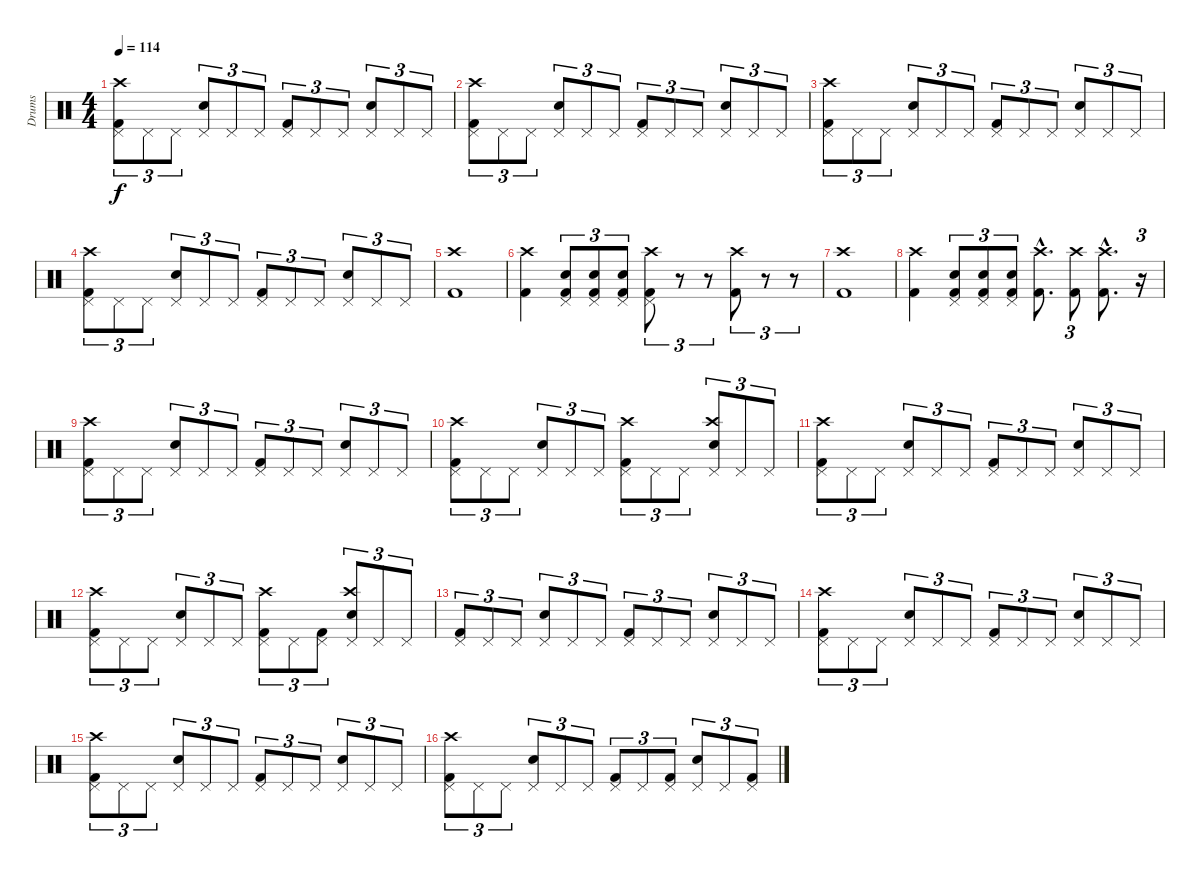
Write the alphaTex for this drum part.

\track ("Drums" "Drums") {instrument percussion}
\staff {score}
\articulation defaults
\ts (4 4)
\tempo 114
\clef neutral
\ks c
("Pedal Hi-Hat (hit)" "Kick (hit) 2" "Crash high (hit)").8{tu (3 2) dy f} "Pedal Hi-Hat (hit)".8{tu (3 2)} "Pedal Hi-Hat (hit)".8{tu (3 2)} ("Pedal Hi-Hat (hit)" "Electric Snare (hit)").8{tu (3 2)} "Pedal Hi-Hat (hit)".8{tu (3 2)} "Pedal Hi-Hat (hit)".8{tu (3 2)} ("Pedal Hi-Hat (hit)" "Kick (hit) 2").8{tu (3 2)} "Pedal Hi-Hat (hit)".8{tu (3 2)} "Pedal Hi-Hat (hit)".8{tu (3 2)} ("Pedal Hi-Hat (hit)" "Electric Snare (hit)").8{tu (3 2)} "Pedal Hi-Hat (hit)".8{tu (3 2)} "Pedal Hi-Hat (hit)".8{tu (3 2)} |
("Pedal Hi-Hat (hit)" "Kick (hit) 2" "Crash high (hit)").8{tu (3 2)} "Pedal Hi-Hat (hit)".8{tu (3 2)} "Pedal Hi-Hat (hit)".8{tu (3 2)} ("Pedal Hi-Hat (hit)" "Electric Snare (hit)").8{tu (3 2)} "Pedal Hi-Hat (hit)".8{tu (3 2)} "Pedal Hi-Hat (hit)".8{tu (3 2)} ("Pedal Hi-Hat (hit)" "Kick (hit) 2").8{tu (3 2)} "Pedal Hi-Hat (hit)".8{tu (3 2)} "Pedal Hi-Hat (hit)".8{tu (3 2)} ("Pedal Hi-Hat (hit)" "Electric Snare (hit)").8{tu (3 2)} "Pedal Hi-Hat (hit)".8{tu (3 2)} "Pedal Hi-Hat (hit)".8{tu (3 2)} |
("Pedal Hi-Hat (hit)" "Kick (hit) 2" "Crash high (hit)").8{tu (3 2)} "Pedal Hi-Hat (hit)".8{tu (3 2)} "Pedal Hi-Hat (hit)".8{tu (3 2)} ("Pedal Hi-Hat (hit)" "Electric Snare (hit)").8{tu (3 2)} "Pedal Hi-Hat (hit)".8{tu (3 2)} "Pedal Hi-Hat (hit)".8{tu (3 2)} ("Pedal Hi-Hat (hit)" "Kick (hit) 2").8{tu (3 2)} "Pedal Hi-Hat (hit)".8{tu (3 2)} "Pedal Hi-Hat (hit)".8{tu (3 2)} ("Pedal Hi-Hat (hit)" "Electric Snare (hit)").8{tu (3 2)} "Pedal Hi-Hat (hit)".8{tu (3 2)} "Pedal Hi-Hat (hit)".8{tu (3 2)} |
("Pedal Hi-Hat (hit)" "Kick (hit) 2" "Crash high (hit)").8{tu (3 2)} "Pedal Hi-Hat (hit)".8{tu (3 2)} "Pedal Hi-Hat (hit)".8{tu (3 2)} ("Pedal Hi-Hat (hit)" "Electric Snare (hit)").8{tu (3 2)} "Pedal Hi-Hat (hit)".8{tu (3 2)} "Pedal Hi-Hat (hit)".8{tu (3 2)} ("Pedal Hi-Hat (hit)" "Kick (hit) 2").8{tu (3 2)} "Pedal Hi-Hat (hit)".8{tu (3 2)} "Pedal Hi-Hat (hit)".8{tu (3 2)} ("Pedal Hi-Hat (hit)" "Electric Snare (hit)").8{tu (3 2)} "Pedal Hi-Hat (hit)".8{tu (3 2)} "Pedal Hi-Hat (hit)".8{tu (3 2)} |
("Crash high (hit)" "Kick (hit) 2").1 |
("Kick (hit) 2" "Crash high (hit)").4 ("Pedal Hi-Hat (hit)" "Electric Snare (hit)" "Kick (hit) 2").8{tu (3 2)} ("Pedal Hi-Hat (hit)" "Electric Snare (hit)" "Kick (hit) 2").8{tu (3 2)} ("Pedal Hi-Hat (hit)" "Electric Snare (hit)" "Kick (hit) 2").8{tu (3 2)} ("Pedal Hi-Hat (hit)" "Crash high (hit)" "Kick (hit) 2").8{tu (3 2)} r.8{tu (3 2)} r.8{tu (3 2)} ("Crash high (hit)" "Kick (hit) 2").8{tu (3 2)} r.8{tu (3 2)} r.8{tu (3 2)} |
("Crash high (hit)" "Kick (hit) 2").1 |
("Crash high (hit)" "Kick (hit) 2").4 ("Pedal Hi-Hat (hit)" "Electric Snare (hit)" "Kick (hit) 2").8{tu (3 2)} ("Pedal Hi-Hat (hit)" "Electric Snare (hit)" "Kick (hit) 2").8{tu (3 2)} ("Pedal Hi-Hat (hit)" "Electric Snare (hit)" "Kick (hit) 2").8{tu (3 2)} ("Crash high (hit)"{hac} "Kick (hit) 2"{hac}).8{d} ("Crash high (hit)" "Kick (hit) 2").8{tu (3 2)} ("Crash high (hit)"{hac} "Kick (hit) 2"{hac}).8{d} r.16{tu (3 2)} |
("Pedal Hi-Hat (hit)" "Crash high (hit)" "Kick (hit) 2").8{tu (3 2)} "Pedal Hi-Hat (hit)".8{tu (3 2)} "Pedal Hi-Hat (hit)".8{tu (3 2)} ("Pedal Hi-Hat (hit)" "Electric Snare (hit)").8{tu (3 2)} "Pedal Hi-Hat (hit)".8{tu (3 2)} "Pedal Hi-Hat (hit)".8{tu (3 2)} ("Pedal Hi-Hat (hit)" "Kick (hit) 2").8{tu (3 2)} "Pedal Hi-Hat (hit)".8{tu (3 2)} "Pedal Hi-Hat (hit)".8{tu (3 2)} ("Pedal Hi-Hat (hit)" "Electric Snare (hit)").8{tu (3 2)} "Pedal Hi-Hat (hit)".8{tu (3 2)} "Pedal Hi-Hat (hit)".8{tu (3 2)} |
("Pedal Hi-Hat (hit)" "Crash high (hit)" "Kick (hit) 2").8{tu (3 2)} "Pedal Hi-Hat (hit)".8{tu (3 2)} "Pedal Hi-Hat (hit)".8{tu (3 2)} ("Pedal Hi-Hat (hit)" "Electric Snare (hit)").8{tu (3 2)} "Pedal Hi-Hat (hit)".8{tu (3 2)} "Pedal Hi-Hat (hit)".8{tu (3 2)} ("Pedal Hi-Hat (hit)" "Crash high (hit)" "Kick (hit) 2").8{tu (3 2)} "Pedal Hi-Hat (hit)".8{tu (3 2)} "Pedal Hi-Hat (hit)".8{tu (3 2)} ("Pedal Hi-Hat (hit)" "Electric Snare (hit)" "Crash high (hit)").8{tu (3 2)} "Pedal Hi-Hat (hit)".8{tu (3 2)} "Pedal Hi-Hat (hit)".8{tu (3 2)} |
("Pedal Hi-Hat (hit)" "Crash high (hit)" "Kick (hit) 2").8{tu (3 2)} "Pedal Hi-Hat (hit)".8{tu (3 2)} "Pedal Hi-Hat (hit)".8{tu (3 2)} ("Pedal Hi-Hat (hit)" "Electric Snare (hit)").8{tu (3 2)} "Pedal Hi-Hat (hit)".8{tu (3 2)} "Pedal Hi-Hat (hit)".8{tu (3 2)} ("Pedal Hi-Hat (hit)" "Kick (hit) 2").8{tu (3 2)} "Pedal Hi-Hat (hit)".8{tu (3 2)} "Pedal Hi-Hat (hit)".8{tu (3 2)} ("Pedal Hi-Hat (hit)" "Electric Snare (hit)").8{tu (3 2)} "Pedal Hi-Hat (hit)".8{tu (3 2)} "Pedal Hi-Hat (hit)".8{tu (3 2)} |
("Pedal Hi-Hat (hit)" "Crash high (hit)" "Kick (hit) 2").8{tu (3 2)} "Pedal Hi-Hat (hit)".8{tu (3 2)} "Pedal Hi-Hat (hit)".8{tu (3 2)} ("Pedal Hi-Hat (hit)" "Electric Snare (hit)").8{tu (3 2)} "Pedal Hi-Hat (hit)".8{tu (3 2)} "Pedal Hi-Hat (hit)".8{tu (3 2)} ("Pedal Hi-Hat (hit)" "Crash high (hit)" "Kick (hit) 2").8{tu (3 2)} "Pedal Hi-Hat (hit)".8{tu (3 2)} ("Pedal Hi-Hat (hit)" "Kick (hit) 2").8{tu (3 2)} ("Pedal Hi-Hat (hit)" "Electric Snare (hit)" "Crash high (hit)").8{tu (3 2)} "Pedal Hi-Hat (hit)".8{tu (3 2)} "Pedal Hi-Hat (hit)".8{tu (3 2)} |
("Pedal Hi-Hat (hit)" "Kick (hit) 2").8{tu (3 2)} "Pedal Hi-Hat (hit)".8{tu (3 2)} "Pedal Hi-Hat (hit)".8{tu (3 2)} ("Pedal Hi-Hat (hit)" "Electric Snare (hit)").8{tu (3 2)} "Pedal Hi-Hat (hit)".8{tu (3 2)} "Pedal Hi-Hat (hit)".8{tu (3 2)} ("Pedal Hi-Hat (hit)" "Kick (hit) 2").8{tu (3 2)} "Pedal Hi-Hat (hit)".8{tu (3 2)} "Pedal Hi-Hat (hit)".8{tu (3 2)} ("Pedal Hi-Hat (hit)" "Electric Snare (hit)").8{tu (3 2)} "Pedal Hi-Hat (hit)".8{tu (3 2)} "Pedal Hi-Hat (hit)".8{tu (3 2)} |
("Pedal Hi-Hat (hit)" "Crash high (hit)" "Kick (hit) 2").8{tu (3 2)} "Pedal Hi-Hat (hit)".8{tu (3 2)} "Pedal Hi-Hat (hit)".8{tu (3 2)} ("Pedal Hi-Hat (hit)" "Electric Snare (hit)").8{tu (3 2)} "Pedal Hi-Hat (hit)".8{tu (3 2)} "Pedal Hi-Hat (hit)".8{tu (3 2)} ("Pedal Hi-Hat (hit)" "Kick (hit) 2").8{tu (3 2)} "Pedal Hi-Hat (hit)".8{tu (3 2)} "Pedal Hi-Hat (hit)".8{tu (3 2)} ("Pedal Hi-Hat (hit)" "Electric Snare (hit)").8{tu (3 2)} "Pedal Hi-Hat (hit)".8{tu (3 2)} "Pedal Hi-Hat (hit)".8{tu (3 2)} |
("Pedal Hi-Hat (hit)" "Crash high (hit)" "Kick (hit) 2").8{tu (3 2)} "Pedal Hi-Hat (hit)".8{tu (3 2)} "Pedal Hi-Hat (hit)".8{tu (3 2)} ("Pedal Hi-Hat (hit)" "Electric Snare (hit)").8{tu (3 2)} "Pedal Hi-Hat (hit)".8{tu (3 2)} "Pedal Hi-Hat (hit)".8{tu (3 2)} ("Pedal Hi-Hat (hit)" "Kick (hit) 2").8{tu (3 2)} "Pedal Hi-Hat (hit)".8{tu (3 2)} "Pedal Hi-Hat (hit)".8{tu (3 2)} ("Pedal Hi-Hat (hit)" "Electric Snare (hit)").8{tu (3 2)} "Pedal Hi-Hat (hit)".8{tu (3 2)} "Pedal Hi-Hat (hit)".8{tu (3 2)} |
("Pedal Hi-Hat (hit)" "Crash high (hit)" "Kick (hit) 2").8{tu (3 2)} "Pedal Hi-Hat (hit)".8{tu (3 2)} "Pedal Hi-Hat (hit)".8{tu (3 2)} ("Pedal Hi-Hat (hit)" "Electric Snare (hit)").8{tu (3 2)} "Pedal Hi-Hat (hit)".8{tu (3 2)} "Pedal Hi-Hat (hit)".8{tu (3 2)} ("Pedal Hi-Hat (hit)" "Kick (hit) 2").8{tu (3 2)} "Pedal Hi-Hat (hit)".8{tu (3 2)} ("Pedal Hi-Hat (hit)" "Kick (hit) 2").8{tu (3 2)} ("Pedal Hi-Hat (hit)" "Electric Snare (hit)").8{tu (3 2)} "Pedal Hi-Hat (hit)".8{tu (3 2)} ("Pedal Hi-Hat (hit)" "Kick (hit) 2").8{tu (3 2)}
